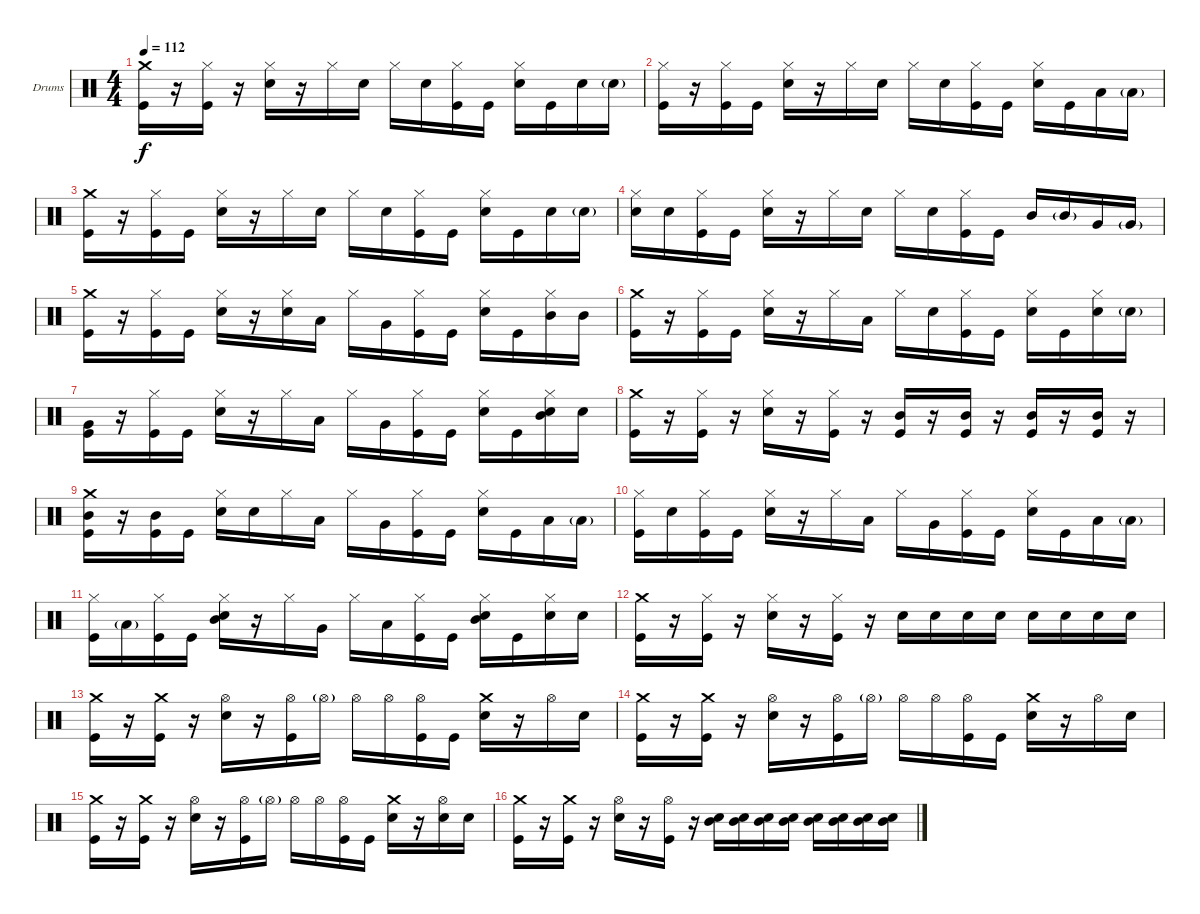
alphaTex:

\bracketExtendMode groupsimilarinstruments
\firstSystemTrackNameOrientation horizontal
\otherSystemsTrackNameOrientation horizontal
\track ("Drumkit" "Drums") {instrument percussion}
\staff {score}
\articulation defaults
\ts (4 4)
\tempo 112
\clef neutral
\ks c
("Crash medium (hit)" "Kick (hit)").16{dy f} r.16 ("Hi-Hat (closed)" "Kick (hit)").16 r.16 ("Hi-Hat (closed)" "Snare (hit) 2").16 r.16 "Hi-Hat (closed)".16 "Snare (hit) 2".16 "Hi-Hat (closed)".16 "Snare (hit) 2".16 ("Hi-Hat (closed)" "Kick (hit)").16 "Kick (hit)".16 ("Hi-Hat (closed)" "Snare (hit) 2").16 "Kick (hit)".16 "Snare (hit) 2".16 "Snare (hit) 2"{g}.16 |
("Hi-Hat (closed)" "Kick (hit)").16 r.16 ("Hi-Hat (closed)" "Kick (hit)").16 "Kick (hit)".16 ("Hi-Hat (closed)" "Snare (hit) 2").16 r.16 "Hi-Hat (closed)".16 "Snare (hit) 2".16 "Hi-Hat (closed)".16 "Snare (hit) 2".16 ("Hi-Hat (closed)" "Kick (hit)").16 "Kick (hit)".16 ("Hi-Hat (closed)" "Snare (hit) 2").16 "Kick (hit)".16 "Low Tom (hit)".16 "Low Tom (hit)"{g}.16 |
("Crash medium (hit)" "Kick (hit)").16 r.16 ("Hi-Hat (closed)" "Kick (hit)").16 "Kick (hit)".16 ("Hi-Hat (closed)" "Snare (hit) 2").16 r.16 "Hi-Hat (closed)".16 "Snare (hit) 2".16 "Hi-Hat (closed)".16 "Snare (hit) 2".16 ("Hi-Hat (closed)" "Kick (hit)").16 "Kick (hit)".16 ("Hi-Hat (closed)" "Snare (hit) 2").16 "Kick (hit)".16 "Snare (hit) 2".16 "Snare (hit) 2"{g}.16 |
("Hi-Hat (closed)" "Snare (hit) 2").16 "Snare (hit) 2".16 ("Hi-Hat (closed)" "Kick (hit)").16 "Kick (hit)".16 ("Hi-Hat (closed)" "Snare (hit) 2").16 r.16 "Hi-Hat (closed)".16 "Snare (hit) 2".16 "Hi-Hat (closed)".16 "Snare (hit) 2".16 ("Hi-Hat (closed)" "Kick (hit)").16 "Kick (hit)".16 "Mid Tom (hit)".16 "Mid Tom (hit)"{g}.16 "Very Low Tom (hit)".16 "Very Low Tom (hit)"{g}.16 |
("Crash medium (hit)" "Kick (hit)").16 r.16 ("Hi-Hat (closed)" "Kick (hit)").16 "Kick (hit)".16 ("Hi-Hat (closed)" "Snare (hit) 2").16 r.16 ("Hi-Hat (closed)" "Snare (hit) 2").16 "Low Tom (hit)".16 "Hi-Hat (closed)".16 "Very Low Tom (hit)".16 ("Hi-Hat (closed)" "Kick (hit)").16 "Kick (hit)".16 ("Hi-Hat (closed)" "Snare (hit) 2").16 "Kick (hit)".16 ("Hi-Hat (closed)" "Mid Tom (hit)").16 "Mid Tom (hit)".16 |
("Crash medium (hit)" "Kick (hit)").16 r.16 ("Hi-Hat (closed)" "Kick (hit)").16 "Kick (hit)".16 ("Hi-Hat (closed)" "Snare (hit) 2").16 r.16 "Hi-Hat (closed)".16 "Low Tom (hit)".16 "Hi-Hat (closed)".16 "Snare (hit) 2".16 ("Hi-Hat (closed)" "Kick (hit)").16 "Kick (hit)".16 ("Hi-Hat (closed)" "Snare (hit) 2").16 "Kick (hit)".16 ("Hi-Hat (closed)" "Snare (hit) 2").16 "Snare (hit) 2"{g}.16 |
("Very Low Tom (hit)" "Kick (hit)").16 r.16 ("Hi-Hat (closed)" "Kick (hit)").16 "Kick (hit)".16 ("Hi-Hat (closed)" "Snare (hit) 2").16 r.16 "Hi-Hat (closed)".16 "Low Tom (hit)".16 "Hi-Hat (closed)".16 "Very Low Tom (hit)".16 ("Hi-Hat (closed)" "Kick (hit)").16 "Kick (hit)".16 ("Hi-Hat (closed)" "Snare (hit) 2").16 "Kick (hit)".16 ("Hi-Hat (closed)" "Mid Tom (hit)" "Snare (hit) 2").16 "Snare (hit) 2".16 |
("Crash medium (hit)" "Kick (hit)").16 r.16 ("Hi-Hat (closed)" "Kick (hit)").16 r.16 ("Hi-Hat (closed)" "Snare (hit) 2").16 r.16 ("Hi-Hat (closed)" "Kick (hit)").16 r.16 ("Mid Tom (hit)" "Kick (hit)").16 r.16 ("Mid Tom (hit)" "Kick (hit)").16 r.16 ("Mid Tom (hit)" "Kick (hit)").16 r.16 ("Mid Tom (hit)" "Kick (hit)").16 r.16 |
("Crash medium (hit)" "Mid Tom (hit)" "Kick (hit)").16 r.16 ("Mid Tom (hit)" "Kick (hit)").16 "Kick (hit)".16 ("Hi-Hat (closed)" "Snare (hit) 2").16 "Snare (hit) 2".16 "Hi-Hat (closed)".16 "Low Tom (hit)".16 "Hi-Hat (closed)".16 "Very Low Tom (hit)".16 ("Hi-Hat (closed)" "Kick (hit)").16 "Kick (hit)".16 ("Hi-Hat (closed)" "Snare (hit) 2").16 "Kick (hit)".16 "Low Tom (hit)".16 "Low Tom (hit)"{g}.16 |
("Hi-Hat (closed)" "Kick (hit)").16 "Snare (hit) 2".16 ("Hi-Hat (closed)" "Kick (hit)").16 "Kick (hit)".16 ("Hi-Hat (closed)" "Snare (hit) 2").16 r.16 "Hi-Hat (closed)".16 "Low Tom (hit)".16 "Hi-Hat (closed)".16 "Very Low Tom (hit)".16 ("Hi-Hat (closed)" "Kick (hit)").16 "Kick (hit)".16 ("Hi-Hat (closed)" "Snare (hit) 2").16 "Kick (hit)".16 "Low Tom (hit)".16 "Low Tom (hit)"{g}.16 |
("Hi-Hat (closed)" "Kick (hit)").16 "Low Tom (hit)"{g}.16 ("Hi-Hat (closed)" "Kick (hit)").16 "Kick (hit)".16 ("Hi-Hat (closed)" "Mid Tom (hit)" "Snare (hit) 2").16 r.16 "Hi-Hat (closed)".16 "Very Low Tom (hit)".16 "Hi-Hat (closed)".16 "Low Tom (hit)".16 ("Hi-Hat (closed)" "Kick (hit)").16 "Kick (hit)".16 ("Hi-Hat (closed)" "Mid Tom (hit)" "Snare (hit) 2").16 "Kick (hit)".16 ("Hi-Hat (closed)" "Snare (hit) 2").16 "Snare (hit) 2".16 |
("Crash medium (hit)" "Kick (hit)").16 r.16 ("Hi-Hat (closed)" "Kick (hit)").16 r.16 ("Hi-Hat (closed)" "Snare (hit) 2").16 r.16 ("Hi-Hat (closed)" "Kick (hit)").16 r.16 "Snare (hit) 2".16 "Snare (hit) 2".16 "Snare (hit) 2".16 "Snare (hit) 2".16 "Snare (hit) 2".16 "Snare (hit) 2".16 "Snare (hit) 2".16 "Snare (hit) 2".16 |
("Crash medium (hit)" "Kick (hit)").16 r.16 ("Crash medium (hit)" "Kick (hit)").16 r.16 ("Hi-Hat (open)" "Snare (hit) 2").16 r.16 ("Hi-Hat (open)" "Kick (hit)").16 "Hi-Hat (open)"{g}.16 "Hi-Hat (open)".16 "Hi-Hat (open)".16 ("Hi-Hat (open)" "Kick (hit)").16 "Kick (hit)".16 ("Crash medium (hit)" "Snare (hit) 2").16 r.16 "Hi-Hat (open)".16 "Snare (hit) 2".16 |
("Crash medium (hit)" "Kick (hit)").16 r.16 ("Crash medium (hit)" "Kick (hit)").16 r.16 ("Hi-Hat (open)" "Snare (hit) 2").16 r.16 ("Hi-Hat (open)" "Kick (hit)").16 "Hi-Hat (open)"{g}.16 "Hi-Hat (open)".16 "Hi-Hat (open)".16 ("Hi-Hat (open)" "Kick (hit)").16 "Kick (hit)".16 ("Crash medium (hit)" "Snare (hit) 2").16 r.16 "Hi-Hat (open)".16 "Snare (hit) 2".16 |
("Crash medium (hit)" "Kick (hit)").16 r.16 ("Crash medium (hit)" "Kick (hit)").16 r.16 ("Hi-Hat (open)" "Snare (hit) 2").16 r.16 ("Hi-Hat (open)" "Kick (hit)").16 "Hi-Hat (open)"{g}.16 "Hi-Hat (open)".16 "Hi-Hat (open)".16 ("Hi-Hat (open)" "Kick (hit)").16 "Kick (hit)".16 ("Crash medium (hit)" "Snare (hit) 2").16 r.16 ("Hi-Hat (open)" "Snare (hit) 2").16 "Snare (hit) 2".16 |
("Crash medium (hit)" "Kick (hit)").16 r.16 ("Crash medium (hit)" "Kick (hit)").16 r.16 ("Hi-Hat (open)" "Snare (hit) 2").16 r.16 ("Hi-Hat (open)" "Kick (hit)").16 r.16 ("Mid Tom (hit)" "Snare (hit) 2").16 ("Mid Tom (hit)" "Snare (hit) 2").16 ("Mid Tom (hit)" "Snare (hit) 2").16 ("Mid Tom (hit)" "Snare (hit) 2").16 ("Mid Tom (hit)" "Snare (hit) 2").16 ("Mid Tom (hit)" "Snare (hit) 2").16 ("Mid Tom (hit)" "Snare (hit) 2").16 ("Mid Tom (hit)" "Snare (hit) 2").16
